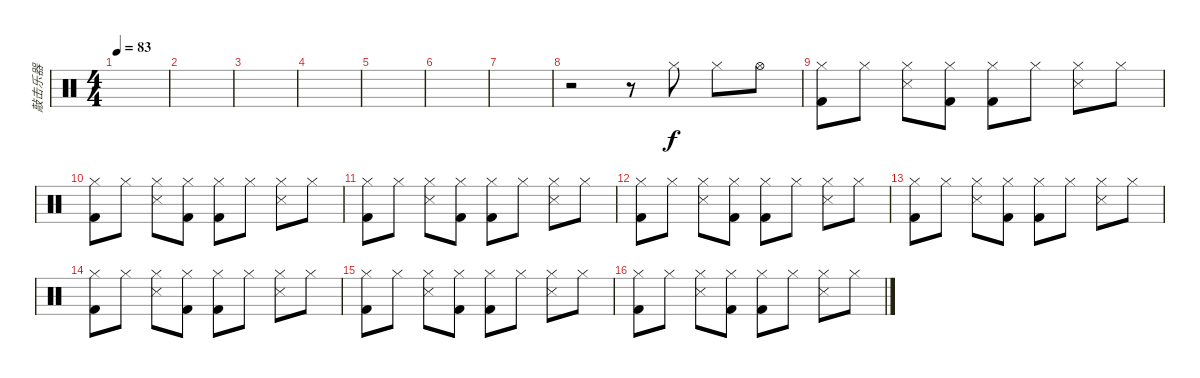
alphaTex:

\track ("敲击乐器" "敲击乐器") {instrument percussion}
\staff {score}
\articulation defaults
\ts (4 4)
\tempo 83
\clef neutral
\ks c
|
|
|
|
|
|
|
r.2 r.8 "Hi-Hat (closed)".8 "Hi-Hat (closed)".8 "Hi-Hat (open)".8 |
("Kick (hit) 2" "Hi-Hat (closed)").8 "Hi-Hat (closed)".8 ("Snare (side stick) 3" "Hi-Hat (closed)").8 ("Kick (hit) 2" "Hi-Hat (closed)").8 ("Kick (hit) 2" "Hi-Hat (closed)").8 "Hi-Hat (closed)".8 ("Snare (side stick) 3" "Hi-Hat (closed)").8 "Hi-Hat (closed)".8 |
("Kick (hit) 2" "Hi-Hat (closed)").8 "Hi-Hat (closed)".8 ("Snare (side stick) 3" "Hi-Hat (closed)").8 ("Kick (hit) 2" "Hi-Hat (closed)").8 ("Kick (hit) 2" "Hi-Hat (closed)").8 "Hi-Hat (closed)".8 ("Snare (side stick) 3" "Hi-Hat (closed)").8 "Hi-Hat (closed)".8 |
("Kick (hit) 2" "Hi-Hat (closed)").8 "Hi-Hat (closed)".8 ("Snare (side stick) 3" "Hi-Hat (closed)").8 ("Kick (hit) 2" "Hi-Hat (closed)").8 ("Kick (hit) 2" "Hi-Hat (closed)").8 "Hi-Hat (closed)".8 ("Snare (side stick) 3" "Hi-Hat (closed)").8 "Hi-Hat (closed)".8 |
("Kick (hit) 2" "Hi-Hat (closed)").8 "Hi-Hat (closed)".8 ("Snare (side stick) 3" "Hi-Hat (closed)").8 ("Kick (hit) 2" "Hi-Hat (closed)").8 ("Kick (hit) 2" "Hi-Hat (closed)").8 "Hi-Hat (closed)".8 ("Snare (side stick) 3" "Hi-Hat (closed)").8 "Hi-Hat (closed)".8 |
("Kick (hit) 2" "Hi-Hat (closed)").8 "Hi-Hat (closed)".8 ("Snare (side stick) 3" "Hi-Hat (closed)").8 ("Kick (hit) 2" "Hi-Hat (closed)").8 ("Kick (hit) 2" "Hi-Hat (closed)").8 "Hi-Hat (closed)".8 ("Snare (side stick) 3" "Hi-Hat (closed)").8 "Hi-Hat (closed)".8 |
("Kick (hit) 2" "Hi-Hat (closed)").8 "Hi-Hat (closed)".8 ("Snare (side stick) 3" "Hi-Hat (closed)").8 ("Kick (hit) 2" "Hi-Hat (closed)").8 ("Kick (hit) 2" "Hi-Hat (closed)").8 "Hi-Hat (closed)".8 ("Snare (side stick) 3" "Hi-Hat (closed)").8 "Hi-Hat (closed)".8 |
("Kick (hit) 2" "Hi-Hat (closed)").8 "Hi-Hat (closed)".8 ("Snare (side stick) 3" "Hi-Hat (closed)").8 ("Kick (hit) 2" "Hi-Hat (closed)").8 ("Kick (hit) 2" "Hi-Hat (closed)").8 "Hi-Hat (closed)".8 ("Snare (side stick) 3" "Hi-Hat (closed)").8 "Hi-Hat (closed)".8 |
("Kick (hit) 2" "Hi-Hat (closed)").8 "Hi-Hat (closed)".8 ("Snare (side stick) 3" "Hi-Hat (closed)").8 ("Kick (hit) 2" "Hi-Hat (closed)").8 ("Kick (hit) 2" "Hi-Hat (closed)").8 "Hi-Hat (closed)".8 ("Snare (side stick) 3" "Hi-Hat (closed)").8 "Hi-Hat (closed)".8
